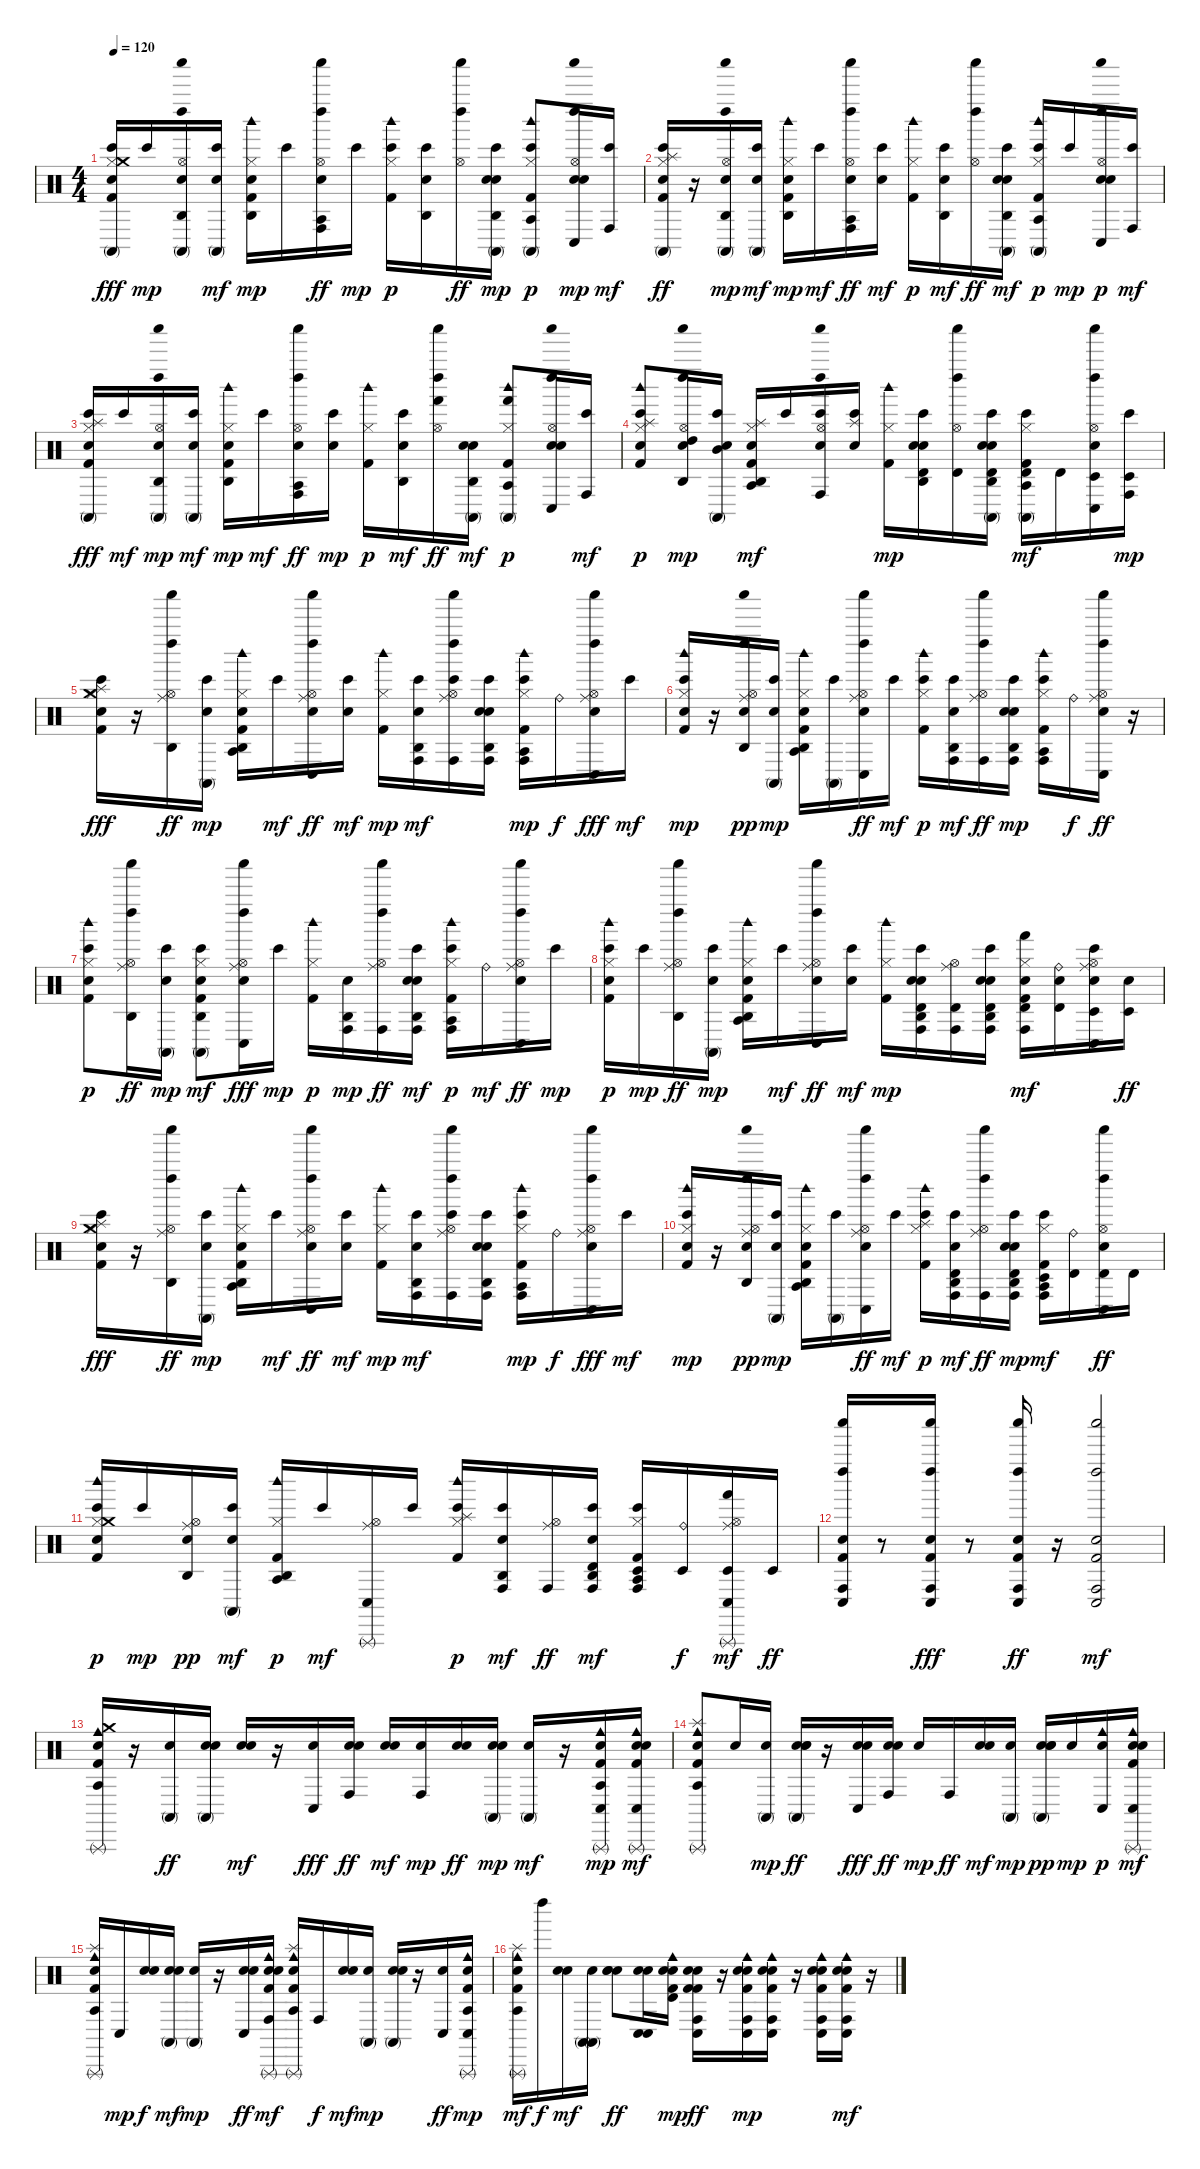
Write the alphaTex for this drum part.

\track "" {instrument percussion}
\staff {score}
\articulation defaults
\ts (4 4)
\tempo 120
\clef neutral
\ks c
("Kick (hit) 2" "Conga high (mute)" "Hi-Hat (closed)" "Crash medium (hit)" "Hand Clap (hit)" "Bongo High (hit)").16{dy fff} "Bongo High (hit)".16{dy mp} ("Shaker (hit)" "Left Maraca (hit)" "Conga high (mute)" "Hi-Hat (open)" "Agogo high (hit)" "Hand Clap (hit)").16 ("Electric Snare (hit)" "Conga high (mute)" "Bongo High (hit)").16{dy mf} ("Kick (hit) 2" "Hi-Hat (closed)" "Agogo high (hit)" "Hand Clap (hit)" "Woodblock high (hit)").16{dy mp} "Bongo High (hit)".16 ("Shaker (hit)" "Left Maraca (hit)" "Electric Snare (hit)" "Conga high (hit)" "Hi-Hat (open)" "Agogo tow (hit)").16{dy ff} "Bongo High (hit)".16{dy mp} ("Kick (hit) 2" "Hi-Hat (closed)" "Bongo High (hit)" "Woodblock high (hit)").16{dy p} ("Agogo high (hit)" "Hand Clap (hit)" "Bongo High (hit)").16 ("Shaker (hit)" "Left Maraca (hit)" "Hi-Hat (open)").16{dy ff} ("Electric Snare (hit)" "Conga high (mute)" "Agogo high (hit)" "Hand Clap (hit)" "Bongo High (hit)").16{dy mp} ("Kick (hit) 2" "Conga high (mute)" "Hi-Hat (closed)" "Bongo High (hit)" "Agogo tow (hit)" "Woodblock high (hit)").8{dy p} ("Shaker (hit)" "Left Maraca (hit)" "Electric Snare (hit)" "Conga low (hit)" "Hi-Hat (open)" "Hand Clap (hit)").16{dy mp} ("Conga high (hit)" "Bongo High (hit)").16{dy mf} |
("Kick (hit) 2" "Conga high (mute)" "Hi-Hat (closed)" "Splash (hit)" "Hand Clap (hit)" "Bongo High (hit)").16{dy ff} r.16 ("Shaker (hit)" "Left Maraca (hit)" "Conga high (mute)" "Hi-Hat (open)" "Agogo high (hit)" "Hand Clap (hit)").16{dy mp} ("Electric Snare (hit)" "Conga high (mute)" "Bongo High (hit)").16{dy mf} ("Kick (hit) 2" "Hi-Hat (closed)" "Agogo high (hit)" "Hand Clap (hit)" "Woodblock high (hit)").16{dy mp} "Bongo High (hit)".16{dy mf} ("Shaker (hit)" "Left Maraca (hit)" "Electric Snare (hit)" "Conga high (hit)" "Hi-Hat (open)" "Agogo tow (hit)").16{dy ff} ("Hand Clap (hit)" "Bongo High (hit)").16{dy mf} ("Kick (hit) 2" "Hi-Hat (closed)" "Woodblock high (hit)").16{dy p} ("Agogo high (hit)" "Hand Clap (hit)" "Bongo High (hit)").16{dy mf} ("Shaker (hit)" "Left Maraca (hit)" "Hi-Hat (open)").16{dy ff} ("Electric Snare (hit)" "Conga high (mute)" "Agogo high (hit)" "Hand Clap (hit)" "Bongo High (hit)").16{dy mf} ("Kick (hit) 2" "Conga high (mute)" "Hi-Hat (closed)" "Bongo High (hit)" "Agogo tow (hit)" "Woodblock high (hit)").16{dy p} "Bongo High (hit)".16{dy mp} ("Shaker (hit)" "Left Maraca (hit)" "Electric Snare (hit)" "Conga low (hit)" "Hi-Hat (open)" "Hand Clap (hit)").16{dy p} ("Conga high (hit)" "Bongo High (hit)").16{dy mf} |
("Kick (hit) 2" "Conga high (mute)" "Hi-Hat (closed)" "Hand Clap (hit)" "Bongo High (hit)" "Splash (hit)").16{dy fff} "Bongo High (hit)".16{dy mf} ("Shaker (hit)" "Left Maraca (hit)" "Conga high (mute)" "Hi-Hat (open)" "Agogo high (hit)" "Hand Clap (hit)").16{dy mp} ("Electric Snare (hit)" "Conga high (mute)" "Bongo High (hit)").16{dy mf} ("Kick (hit) 2" "Hi-Hat (closed)" "Agogo high (hit)" "Hand Clap (hit)" "Woodblock high (hit)").16{dy mp} "Bongo High (hit)".16{dy mf} ("Shaker (hit)" "Left Maraca (hit)" "Electric Snare (hit)" "Conga high (hit)" "Hi-Hat (open)" "Agogo tow (hit)").16{dy ff} ("Hand Clap (hit)" "Bongo High (hit)").16{dy mp} ("Kick (hit) 2" "Hi-Hat (closed)" "Woodblock high (hit)").16{dy p} ("Agogo high (hit)" "Hand Clap (hit)" "Bongo High (hit)").16{dy mf} ("Shaker (hit)" "Left Maraca (hit)" "Hi-Hat (open)" "Hand (hit)").16{dy ff} ("Electric Snare (hit)" "Conga high (mute)" "Agogo high (hit)" "Hand Clap (hit)").16{dy mf} ("Kick (hit) 2" "Conga high (mute)" "Hi-Hat (closed)" "Hand (hit)" "Agogo tow (hit)" "Woodblock high (hit)").8{dy p} ("Shaker (hit)" "Left Maraca (hit)" "Electric Snare (hit)" "Conga low (hit)" "Hi-Hat (open)" "Hand Clap (hit)").16 ("Conga high (hit)" "Bongo High (hit)").16{dy mf} |
("Kick (hit) 2" "Hi-Hat (closed)" "Splash (hit)" "Hand Clap (hit)" "Bongo High (hit)" "Woodblock high (hit)").8{dy p} ("Shaker (hit)" "Left Maraca (hit)" "Hi-Hat (open)" "Agogo high (hit)" "High Tom (hit)" "Hand Clap (hit)").16{dy mp} ("Electric Snare (hit)" "Conga high (mute)" "Mid Tom (hit)" "Bongo High (hit)").16 ("Kick (hit) 2" "Hi-Hat (closed)" "Agogo high (hit)" "Splash (hit)" "Hand Clap (hit)" "Agogo tow (hit)").16{dy mf} "Bongo High (hit)".16 ("Shaker (hit)" "Left Maraca (hit)" "Electric Snare (hit)" "Conga high (hit)" "Hi-Hat (open)" "Bongo High (hit)").16 ("Splash (hit)" "Hand Clap (hit)" "Bongo High (hit)").16 ("Kick (hit) 2" "Hi-Hat (closed)" "Woodblock high (hit)").16{dy mp} ("Electric Snare (hit)" "Agogo high (hit)" "Hand Clap (hit)" "Bongo High (hit)" "Timbale high (hit)").16 ("Shaker (hit)" "Left Maraca (hit)" "Hi-Hat (open)" "Timbale high (hit)").16 ("Electric Snare (hit)" "Conga high (mute)" "Agogo high (hit)" "Hand Clap (hit)" "Bongo High (hit)" "Timbale high (hit)").16 ("Kick (hit) 2" "Conga high (mute)" "Hi-Hat (closed)" "Bongo High (hit)" "Timbale high (hit)" "Agogo tow (hit)").16{dy mf} "Timbale high (hit)".16 ("Shaker (hit)" "Left Maraca (hit)" "Electric Snare (hit)" "Conga low (hit)" "Hi-Hat (open)" "Timbale low (hit)").16 ("Conga high (hit)" "Bongo High (hit)" "Timbale low (hit)").16{dy mp} |
("Kick (hit) 2" "Hi-Hat (closed)" "Hand Clap (hit)" "Bongo High (hit)" "Crash medium (hit)" "Splash (hit)").16{dy fff} r.16 ("Shaker (hit)" "Left Maraca (hit)" "Hi-Hat (open)" "Agogo high (hit)" "Ride (middle)").16{dy ff} ("Electric Snare (hit)" "Conga high (mute)" "Bongo High (hit)").16{dy mp} ("Kick (hit) 2" "Hi-Hat (closed)" "Agogo high (hit)" "Hand Clap (hit)" "Agogo tow (hit)" "Woodblock high (hit)").16 "Bongo High (hit)".16{dy mf} ("Shaker (hit)" "Left Maraca (hit)" "Electric Snare (hit)" "Conga low (hit)" "Hi-Hat (open)" "Ride (middle)").16{dy ff} ("Hand Clap (hit)" "Bongo High (hit)").16{dy mf} ("Kick (hit) 2" "Hi-Hat (closed)" "Woodblock high (hit)").16{dy mp} ("Conga high (hit)" "Agogo high (hit)" "Hand Clap (hit)" "Bongo High (hit)").16{dy mf} ("Shaker (hit)" "Left Maraca (hit)" "Conga high (hit)" "Hi-Hat (open)" "Ride (middle)" "Bongo High (hit)").16 ("Electric Snare (hit)" "Conga high (hit)" "Agogo high (hit)" "Hand Clap (hit)" "Bongo High (hit)").16 ("Kick (hit) 2" "Conga high (hit)" "Hi-Hat (closed)" "Bongo High (hit)" "Agogo tow (hit)" "Woodblock high (hit)").16{dy mp} "Ride (bell)".16{dy f} ("Shaker (hit)" "Left Maraca (hit)" "Electric Snare (hit)" "Conga low (hit)" "Hi-Hat (open)" "Ride (middle)").16{dy fff} "Bongo High (hit)".16{dy mf} |
("Kick (hit) 2" "Hi-Hat (closed)" "Hand Clap (hit)" "Bongo High (hit)" "Woodblock high (hit)").16{dy mp} r.16 ("Shaker (hit)" "Left Maraca (hit)" "Hi-Hat (open)" "Agogo high (hit)" "Ride (middle)" "Hand Clap (hit)").16{dy pp} ("Electric Snare (hit)" "Conga high (mute)" "Bongo High (hit)").16{dy mp} ("Kick (hit) 2" "Hi-Hat (closed)" "Agogo high (hit)" "Hand Clap (hit)" "Agogo tow (hit)" "Woodblock high (hit)").16 ("Conga high (mute)" "Bongo High (hit)").16 ("Shaker (hit)" "Left Maraca (hit)" "Electric Snare (hit)" "Conga low (hit)" "Hi-Hat (open)" "Ride (middle)").16{dy ff} "Bongo High (hit)".16{dy mf} ("Kick (hit) 2" "Hi-Hat (closed)" "Bongo High (hit)" "Woodblock high (hit)").16{dy p} ("Conga high (hit)" "Agogo high (hit)" "Hand Clap (hit)" "Bongo High (hit)").16{dy mf} ("Shaker (hit)" "Left Maraca (hit)" "Conga high (hit)" "Hi-Hat (open)" "Ride (middle)").16{dy ff} ("Electric Snare (hit)" "Conga high (hit)" "Agogo high (hit)" "Hand Clap (hit)" "Bongo High (hit)").16{dy mp} ("Kick (hit) 2" "Conga high (hit)" "Hi-Hat (closed)" "Bongo High (hit)" "Agogo tow (hit)" "Woodblock high (hit)").16 "Ride (bell)".16{dy f} ("Shaker (hit)" "Left Maraca (hit)" "Electric Snare (hit)" "Conga low (hit)" "Hi-Hat (open)" "Ride (middle)").16{dy ff} r.16 |
("Kick (hit) 2" "Hi-Hat (closed)" "Hand Clap (hit)" "Bongo High (hit)" "Woodblock high (hit)").8{dy p} ("Shaker (hit)" "Left Maraca (hit)" "Hi-Hat (open)" "Agogo high (hit)" "Ride (middle)").16{dy ff} ("Electric Snare (hit)" "Conga high (mute)" "Bongo High (hit)").16{dy mp} ("Kick (hit) 2" "Conga high (mute)" "Hi-Hat (closed)" "Agogo high (hit)" "Hand Clap (hit)" "Bongo High (hit)").8{dy mf} ("Shaker (hit)" "Left Maraca (hit)" "Electric Snare (hit)" "Conga low (hit)" "Hi-Hat (open)" "Ride (middle)").16{dy fff} "Bongo High (hit)".16{dy mp} ("Kick (hit) 2" "Hi-Hat (closed)" "Woodblock high (hit)").16{dy p} ("Conga high (hit)" "Agogo high (hit)" "Hand Clap (hit)").16{dy mp} ("Shaker (hit)" "Left Maraca (hit)" "Conga high (hit)" "Hi-Hat (open)" "Ride (middle)").16{dy ff} ("Electric Snare (hit)" "Conga high (hit)" "Agogo high (hit)" "Hand Clap (hit)" "Bongo High (hit)").16{dy mf} ("Kick (hit) 2" "Conga high (hit)" "Hi-Hat (closed)" "Bongo High (hit)" "Agogo tow (hit)" "Woodblock high (hit)").16{dy p} "Ride (bell)".16{dy mf} ("Shaker (hit)" "Left Maraca (hit)" "Electric Snare (hit)" "Conga low (hit)" "Hi-Hat (open)" "Ride (middle)").16{dy ff} "Bongo High (hit)".16{dy mp} |
("Kick (hit) 2" "Hi-Hat (closed)" "Hand Clap (hit)" "Bongo High (hit)" "Woodblock high (hit)").16{dy p} "Bongo High (hit)".16{dy mp} ("Left Maraca (hit)" "Shaker (hit)" "Hi-Hat (open)" "Agogo high (hit)" "Ride (middle)").16{dy ff} ("Electric Snare (hit)" "Conga high (mute)" "Bongo High (hit)").16{dy mp} ("Kick (hit) 2" "Hi-Hat (closed)" "Agogo high (hit)" "Hand Clap (hit)" "Agogo tow (hit)" "Woodblock high (hit)").16 "Bongo High (hit)".16{dy mf} ("Shaker (hit)" "Left Maraca (hit)" "Electric Snare (hit)" "Conga low (hit)" "Hi-Hat (open)" "Ride (middle)").16{dy ff} ("Hand Clap (hit)" "Bongo High (hit)").16{dy mf} ("Kick (hit) 2" "Hi-Hat (closed)" "Woodblock high (hit)").16{dy mp} ("Electric Snare (hit)" "Conga high (hit)" "Agogo high (hit)" "Hand Clap (hit)" "Bongo High (hit)" "Timbale high (hit)").16 ("Conga high (hit)" "Hi-Hat (open)" "Ride (middle)" "Timbale high (hit)").16 ("Electric Snare (hit)" "Conga high (hit)" "Agogo high (hit)" "Hand Clap (hit)" "Bongo High (hit)" "Timbale high (hit)").16 ("Kick (hit) 2" "Electric Snare (hit)" "Conga high (hit)" "Hi-Hat (closed)" "Hand (hit)" "Timbale high (hit)").16{dy mf} ("Electric Snare (hit)" "Ride (bell)" "Timbale high (hit)").16 ("Electric Snare (hit)" "Conga low (hit)" "Hi-Hat (open)" "Ride (middle)" "Bongo High (hit)" "Timbale low (hit)").16 ("Electric Snare (hit)" "Timbale low (hit)").16{dy ff} |
("Kick (hit) 2" "Hi-Hat (closed)" "Hand Clap (hit)" "Bongo High (hit)" "Crash medium (hit)" "Splash (hit)").16{dy fff} r.16 ("Shaker (hit)" "Left Maraca (hit)" "Hi-Hat (open)" "Agogo high (hit)" "Ride (middle)").16{dy ff} ("Electric Snare (hit)" "Conga high (mute)" "Bongo High (hit)").16{dy mp} ("Kick (hit) 2" "Hi-Hat (closed)" "Agogo high (hit)" "Hand Clap (hit)" "Agogo tow (hit)" "Woodblock high (hit)").16 "Bongo High (hit)".16{dy mf} ("Shaker (hit)" "Left Maraca (hit)" "Electric Snare (hit)" "Conga low (hit)" "Hi-Hat (open)" "Ride (middle)").16{dy ff} ("Hand Clap (hit)" "Bongo High (hit)").16{dy mf} ("Kick (hit) 2" "Hi-Hat (closed)" "Woodblock high (hit)").16{dy mp} ("Conga high (hit)" "Agogo high (hit)" "Hand Clap (hit)" "Bongo High (hit)").16{dy mf} ("Shaker (hit)" "Left Maraca (hit)" "Conga high (hit)" "Hi-Hat (open)" "Ride (middle)" "Bongo High (hit)").16 ("Electric Snare (hit)" "Conga high (hit)" "Agogo high (hit)" "Hand Clap (hit)" "Bongo High (hit)").16 ("Kick (hit) 2" "Conga high (hit)" "Hi-Hat (closed)" "Bongo High (hit)" "Agogo tow (hit)" "Woodblock high (hit)").16{dy mp} "Ride (bell)".16{dy f} ("Shaker (hit)" "Left Maraca (hit)" "Electric Snare (hit)" "Conga low (hit)" "Hi-Hat (open)" "Ride (middle)").16{dy fff} "Bongo High (hit)".16{dy mf} |
("Kick (hit) 2" "Hi-Hat (closed)" "Hand Clap (hit)" "Bongo High (hit)" "Woodblock high (hit)").16{dy mp} r.16 ("Shaker (hit)" "Left Maraca (hit)" "Hi-Hat (open)" "Agogo high (hit)" "Ride (middle)" "Hand Clap (hit)").16{dy pp} ("Electric Snare (hit)" "Conga high (mute)" "Bongo High (hit)").16{dy mp} ("Kick (hit) 2" "Hi-Hat (closed)" "Agogo high (hit)" "Hand Clap (hit)" "Agogo tow (hit)" "Woodblock high (hit)").16 ("Conga high (mute)" "Bongo High (hit)").16 ("Shaker (hit)" "Left Maraca (hit)" "Electric Snare (hit)" "Conga low (hit)" "Hi-Hat (open)" "Ride (middle)").16{dy ff} "Bongo High (hit)".16{dy mf} ("Kick (hit) 2" "Hi-Hat (closed)" "Splash (hit)" "Bongo High (hit)" "Woodblock high (hit)").16{dy p} ("Conga high (hit)" "Agogo high (hit)" "Timbale high (hit)" "Hand Clap (hit)" "Bongo High (hit)").16{dy mf} ("Shaker (hit)" "Left Maraca (hit)" "Conga high (hit)" "Hi-Hat (open)" "Ride (middle)").16{dy ff} ("Electric Snare (hit)" "Conga high (hit)" "Agogo high (hit)" "Timbale high (hit)" "Hand Clap (hit)" "Bongo High (hit)").16{dy mp} ("Kick (hit) 2" "Conga high (hit)" "Hi-Hat (closed)" "Timbale low (hit)" "Bongo High (hit)" "Agogo tow (hit)").16{dy mf} ("Timbale high (hit)" "Ride (bell)").16 ("Shaker (hit)" "Left Maraca (hit)" "Electric Snare (hit)" "Conga low (hit)" "Hi-Hat (open)" "Timbale high (hit)").16{dy ff} "Timbale high (hit)".16 |
("Kick (hit) 2" "Hi-Hat (closed)" "Crash medium (hit)" "Hand Clap (hit)" "Bongo High (hit)" "Woodblock high (hit)").16{dy p} "Bongo High (hit)".16{dy mp} ("Hi-Hat (open)" "Agogo high (hit)" "Ride (middle)" "Hand Clap (hit)").16{dy pp} ("Conga high (mute)" "Hand Clap (hit)" "Bongo High (hit)").16{dy mf} ("Kick (hit) 2" "Hi-Hat (closed)" "Agogo high (hit)" "Agogo tow (hit)" "Woodblock high (hit)").16{dy p} "Bongo High (hit)".16{dy mf} ("Conga low (hit)" "Hi-Hat (open)" "Ride (middle)" "Triangle (rnute)").16 "Bongo High (hit)".16 ("Kick (hit) 2" "Hi-Hat (closed)" "Splash (hit)" "Bongo High (hit)" "Woodblock high (hit)").16{dy p} ("Conga high (hit)" "Agogo high (hit)" "Hand Clap (hit)" "Bongo High (hit)").16{dy mf} ("Conga high (hit)" "Hi-Hat (open)" "Ride (middle)").16{dy ff} ("Conga high (hit)" "Agogo high (hit)" "Timbale high (hit)" "Hand Clap (hit)" "Bongo High (hit)").16{dy mf} ("Kick (hit) 2" "Conga high (hit)" "Hi-Hat (closed)" "Timbale low (hit)" "Bongo High (hit)" "Agogo tow (hit)").16 ("Timbale low (hit)" "Ride (bell)").16{dy f} ("Conga low (hit)" "Hi-Hat (open)" "Timbale low (hit)" "Ride (middle)" "Hand (hit)" "Triangle (rnute)").16{dy mf} "Timbale low (hit)".16{dy ff} |
("Kick (hit) 2" "Shaker (hit)" "Left Maraca (hit)" "Electric Snare (hit)" "Conga low (hit)" "Conga high (hit)").16 r.8 ("Kick (hit) 2" "Shaker (hit)" "Left Maraca (hit)" "Electric Snare (hit)" "Conga low (hit)" "Conga high (hit)").16{dy fff} r.8 ("Kick (hit) 2" "Shaker (hit)" "Left Maraca (hit)" "Electric Snare (hit)" "Conga low (hit)" "Conga high (hit)").16{dy ff} r.16 ("Kick (hit) 2" "Shaker (hit)" "Left Maraca (hit)" "Electric Snare (hit)" "Conga high (hit)" "Conga low (hit)").2{dy mf} |
("Kick (hit) 2" "Snare (hit) 2" "Crash medium (hit)" "Cowbell medium (hit)" "Triangle (rnute)" "Agogo tow (hit)").16 r.16 ("Electric Snare (hit)" "Conga high (mute)").16{dy ff} ("Snare (hit) 2" "Electric Snare (hit)" "Conga high (mute)").16 ("Snare (hit) 2" "Hand Clap (hit)").16{dy mf} r.16 ("Electric Snare (hit)" "Conga low (hit)").16{dy fff} ("Snare (hit) 2" "Electric Snare (hit)" "Conga high (hit)").16{dy ff} ("Snare (hit) 2" "Hand Clap (hit)").16{dy mf} ("Electric Snare (hit)" "Conga high (hit)").16{dy mp} ("Electric Snare (hit)" "Hand Clap (hit)").16{dy ff} ("Snare (hit) 2" "Electric Snare (hit)" "Conga high (mute)").16{dy mp} ("Snare (hit) 2" "Conga high (mute)").16{dy mf} r.16 ("Kick (hit) 2" "Electric Snare (hit)" "Conga low (hit)" "Cowbell medium (hit)" "Triangle (rnute)" "Agogo tow (hit)").16{dy mp} ("Kick (hit) 2" "Snare (hit) 2" "Electric Snare (hit)" "Conga low (hit)" "Cowbell medium (hit)" "Triangle (rnute)").16{dy mf} |
("Kick (hit) 2" "Snare (hit) 2" "Splash (hit)" "Cowbell medium (hit)" "Triangle (rnute)" "Agogo tow (hit)").8 "Electric Snare (hit)".16 ("Electric Snare (hit)" "Conga high (mute)").16{dy mp} ("Snare (hit) 2" "Electric Snare (hit)" "Conga high (mute)" "Hand Clap (hit)").16{dy ff} r.16 ("Electric Snare (hit)" "Conga low (hit)" "Hand Clap (hit)").16{dy fff} ("Snare (hit) 2" "Electric Snare (hit)" "Conga high (hit)").16{dy ff} "Snare (hit) 2".16{dy mp} "Conga high (hit)".16{dy ff} ("Electric Snare (hit)" "Hand Clap (hit)").16{dy mf} ("Electric Snare (hit)" "Conga high (mute)").16{dy mp} ("Snare (hit) 2" "Electric Snare (hit)" "Conga high (mute)" "Hand Clap (hit)").16{dy pp} "Electric Snare (hit)".16{dy mp} ("Electric Snare (hit)" "Conga low (hit)" "Cowbell medium (hit)").16{dy p} ("Kick (hit) 2" "Snare (hit) 2" "Electric Snare (hit)" "Conga low (hit)" "Cowbell medium (hit)" "Triangle (rnute)").16{dy mf} |
("Kick (hit) 2" "Snare (hit) 2" "Splash (hit)" "Cowbell medium (hit)" "Triangle (rnute)" "Agogo tow (hit)").16 "Conga low (hit)".16{dy mp} ("Electric Snare (hit)" "Hand Clap (hit)").16{dy f} ("Snare (hit) 2" "Electric Snare (hit)" "Conga high (mute)").16{dy mf} ("Snare (hit) 2" "Conga high (mute)").16{dy mp} r.16 ("Electric Snare (hit)" "Conga low (hit)" "Hand Clap (hit)").16{dy ff} ("Kick (hit) 2" "Snare (hit) 2" "Electric Snare (hit)" "Conga high (hit)" "Cowbell medium (hit)" "Triangle (rnute)").16{dy mf} ("Kick (hit) 2" "Snare (hit) 2" "Splash (hit)" "Cowbell medium (hit)" "Triangle (rnute)" "Agogo tow (hit)").16 "Conga high (hit)".16{dy f} ("Electric Snare (hit)" "Hand Clap (hit)").16{dy mf} ("Electric Snare (hit)" "Conga high (mute)").16{dy mp} ("Snare (hit) 2" "Conga high (mute)" "Hand Clap (hit)").16 r.16 ("Electric Snare (hit)" "Conga low (hit)").16{dy ff} ("Kick (hit) 2" "Electric Snare (hit)" "Conga low (hit)" "Cowbell medium (hit)" "Triangle (rnute)" "Agogo tow (hit)").16{dy mp} |
("Kick (hit) 2" "Snare (hit) 2" "Splash (hit)" "Cowbell medium (hit)" "Triangle (rnute)" "Agogo tow (hit)").16{dy mf} "Left Maraca (hit)".16{dy f} ("Electric Snare (hit)" "Hand Clap (hit)").16{dy mf} ("Electric Snare (hit)" "Conga high (mute)" "Conga high (mute)").16 ("Snare (hit) 2" "Electric Snare (hit)" "Hand Clap (hit)").8{dy ff} ("Snare (hit) 2" "Electric Snare (hit)" "Conga low (hit)" "Conga low (hit)").16 ("Kick (hit) 2" "Snare (hit) 2" "Electric Snare (hit)" "Cowbell medium (hit)" "Timbale high (hit)").16{dy mp} ("Kick (hit) 2" "Kick (hit) 2" "Snare (hit) 2" "Electric Snare (hit)" "Conga low (hit)" "Conga high (hit)").16{dy ff} r.16 ("Kick (hit) 2" "Snare (hit) 2" "Electric Snare (hit)" "Conga high (hit)" "Conga low (hit)" "Cowbell medium (hit)").16{dy mp} ("Kick (hit) 2" "Snare (hit) 2" "Electric Snare (hit)" "Conga low (hit)" "Conga high (hit)" "Cowbell medium (hit)").16 r.16 ("Kick (hit) 2" "Snare (hit) 2" "Electric Snare (hit)" "Conga high (hit)" "Conga low (hit)" "Cowbell medium (hit)").16 ("Kick (hit) 2" "Snare (hit) 2" "Electric Snare (hit)" "Conga low (hit)" "Conga high (hit)" "Cowbell medium (hit)").16{dy mf} r.16
